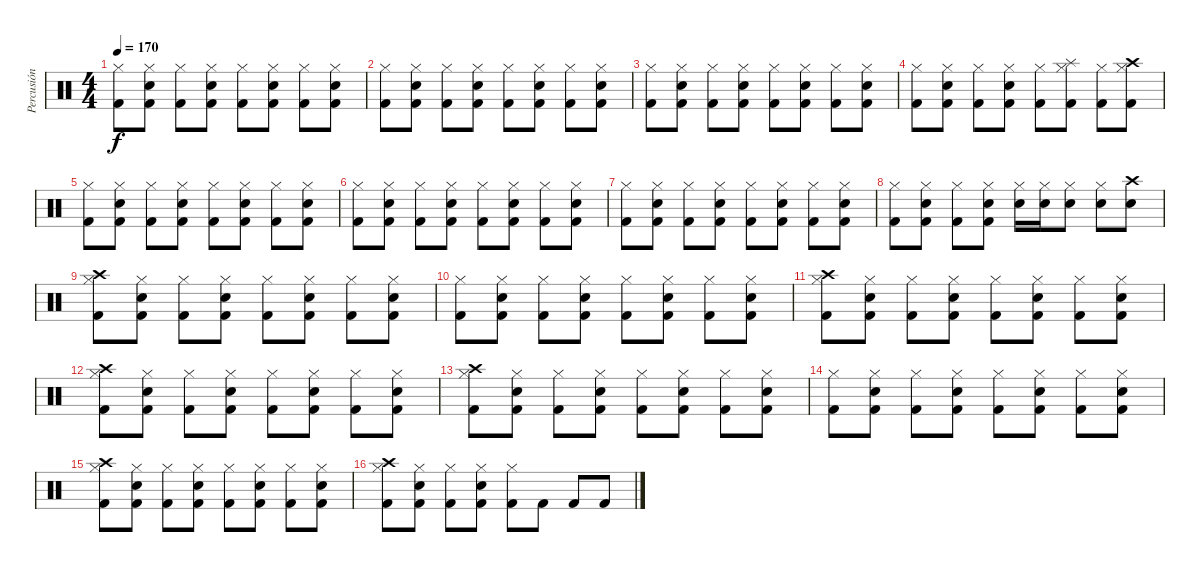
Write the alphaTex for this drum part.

\track ("Percusión" "Percusión") {instrument percussion}
\staff {score}
\articulation defaults
\ts (4 4)
\tempo 170
\clef neutral
\ks c
("Hi-Hat (closed)" "Kick (hit) 2").8{dy f} ("Hi-Hat (closed)" "Snare (hit) 2" "Kick (hit) 2").8 ("Hi-Hat (closed)" "Kick (hit) 2").8 ("Hi-Hat (closed)" "Snare (hit) 2" "Kick (hit) 2").8 ("Hi-Hat (closed)" "Kick (hit) 2").8 ("Hi-Hat (closed)" "Snare (hit) 2" "Kick (hit) 2").8 ("Hi-Hat (closed)" "Kick (hit) 2").8 ("Hi-Hat (closed)" "Snare (hit) 2" "Kick (hit) 2").8 |
("Hi-Hat (closed)" "Kick (hit) 2").8 ("Hi-Hat (closed)" "Snare (hit) 2" "Kick (hit) 2").8 ("Hi-Hat (closed)" "Kick (hit) 2").8 ("Hi-Hat (closed)" "Snare (hit) 2" "Kick (hit) 2").8 ("Hi-Hat (closed)" "Kick (hit) 2").8 ("Hi-Hat (closed)" "Snare (hit) 2" "Kick (hit) 2").8 ("Hi-Hat (closed)" "Kick (hit) 2").8 ("Hi-Hat (closed)" "Snare (hit) 2" "Kick (hit) 2").8 |
("Hi-Hat (closed)" "Kick (hit) 2").8 ("Hi-Hat (closed)" "Snare (hit) 2" "Kick (hit) 2").8 ("Hi-Hat (closed)" "Kick (hit) 2").8 ("Hi-Hat (closed)" "Snare (hit) 2" "Kick (hit) 2").8 ("Hi-Hat (closed)" "Kick (hit) 2").8 ("Hi-Hat (closed)" "Snare (hit) 2" "Kick (hit) 2").8 ("Hi-Hat (closed)" "Kick (hit) 2").8 ("Hi-Hat (closed)" "Snare (hit) 2" "Kick (hit) 2").8 |
("Hi-Hat (closed)" "Kick (hit) 2").8 ("Hi-Hat (closed)" "Snare (hit) 2" "Kick (hit) 2").8 ("Hi-Hat (closed)" "Kick (hit) 2").8 ("Hi-Hat (closed)" "Snare (hit) 2" "Kick (hit) 2").8 ("Hi-Hat (closed)" "Kick (hit) 2").8 ("Hi-Hat (closed)" "Splash (hit)" "Kick (hit) 2").8 ("Hi-Hat (closed)" "Kick (hit) 2").8 ("Hi-Hat (closed)" "Crash high (hit)" "Kick (hit) 2").8 |
("Hi-Hat (closed)" "Kick (hit) 2").8 ("Hi-Hat (closed)" "Snare (hit) 2" "Kick (hit) 2").8 ("Hi-Hat (closed)" "Kick (hit) 2").8 ("Hi-Hat (closed)" "Snare (hit) 2" "Kick (hit) 2").8 ("Hi-Hat (closed)" "Kick (hit) 2").8 ("Hi-Hat (closed)" "Snare (hit) 2" "Kick (hit) 2").8 ("Hi-Hat (closed)" "Kick (hit) 2").8 ("Hi-Hat (closed)" "Snare (hit) 2" "Kick (hit) 2").8 |
("Hi-Hat (closed)" "Kick (hit) 2").8 ("Hi-Hat (closed)" "Snare (hit) 2" "Kick (hit) 2").8 ("Hi-Hat (closed)" "Kick (hit) 2").8 ("Hi-Hat (closed)" "Snare (hit) 2" "Kick (hit) 2").8 ("Hi-Hat (closed)" "Kick (hit) 2").8 ("Hi-Hat (closed)" "Snare (hit) 2" "Kick (hit) 2").8 ("Hi-Hat (closed)" "Kick (hit) 2").8 ("Hi-Hat (closed)" "Snare (hit) 2" "Kick (hit) 2").8 |
("Hi-Hat (closed)" "Kick (hit) 2").8 ("Hi-Hat (closed)" "Snare (hit) 2" "Kick (hit) 2").8 ("Hi-Hat (closed)" "Kick (hit) 2").8 ("Hi-Hat (closed)" "Snare (hit) 2" "Kick (hit) 2").8 ("Hi-Hat (closed)" "Kick (hit) 2").8 ("Hi-Hat (closed)" "Snare (hit) 2" "Kick (hit) 2").8 ("Hi-Hat (closed)" "Kick (hit) 2").8 ("Hi-Hat (closed)" "Snare (hit) 2" "Kick (hit) 2").8 |
("Hi-Hat (closed)" "Kick (hit) 2").8 ("Hi-Hat (closed)" "Snare (hit) 2" "Kick (hit) 2").8 ("Hi-Hat (closed)" "Kick (hit) 2").8 ("Hi-Hat (closed)" "Snare (hit) 2" "Kick (hit) 2").8 ("Hi-Hat (closed)" "Snare (hit) 2").16 ("Hi-Hat (closed)" "Snare (hit) 2").16 ("Hi-Hat (closed)" "Snare (hit) 2").8 ("Hi-Hat (closed)" "Snare (hit) 2").8 ("Crash high (hit)" "Snare (hit) 2").8 |
("Hi-Hat (closed)" "Crash high (hit)" "Kick (hit) 2").8 ("Hi-Hat (closed)" "Snare (hit) 2" "Kick (hit) 2").8 ("Hi-Hat (closed)" "Kick (hit) 2").8 ("Hi-Hat (closed)" "Snare (hit) 2" "Kick (hit) 2").8 ("Hi-Hat (closed)" "Kick (hit) 2").8 ("Hi-Hat (closed)" "Snare (hit) 2" "Kick (hit) 2").8 ("Hi-Hat (closed)" "Kick (hit) 2").8 ("Hi-Hat (closed)" "Snare (hit) 2" "Kick (hit) 2").8 |
("Hi-Hat (closed)" "Kick (hit) 2").8 ("Hi-Hat (closed)" "Snare (hit) 2" "Kick (hit) 2").8 ("Hi-Hat (closed)" "Kick (hit) 2").8 ("Hi-Hat (closed)" "Snare (hit) 2" "Kick (hit) 2").8 ("Hi-Hat (closed)" "Kick (hit) 2").8 ("Hi-Hat (closed)" "Snare (hit) 2" "Kick (hit) 2").8 ("Hi-Hat (closed)" "Kick (hit) 2").8 ("Hi-Hat (closed)" "Snare (hit) 2" "Kick (hit) 2").8 |
("Hi-Hat (closed)" "Crash high (hit)" "Kick (hit) 2").8 ("Hi-Hat (closed)" "Snare (hit) 2" "Kick (hit) 2").8 ("Hi-Hat (closed)" "Kick (hit) 2").8 ("Hi-Hat (closed)" "Snare (hit) 2" "Kick (hit) 2").8 ("Hi-Hat (closed)" "Kick (hit) 2").8 ("Hi-Hat (closed)" "Snare (hit) 2" "Kick (hit) 2").8 ("Hi-Hat (closed)" "Kick (hit) 2").8 ("Hi-Hat (closed)" "Snare (hit) 2" "Kick (hit) 2").8 |
("Hi-Hat (closed)" "Crash high (hit)" "Kick (hit) 2").8 ("Hi-Hat (closed)" "Snare (hit) 2" "Kick (hit) 2").8 ("Hi-Hat (closed)" "Kick (hit) 2").8 ("Hi-Hat (closed)" "Snare (hit) 2" "Kick (hit) 2").8 ("Hi-Hat (closed)" "Kick (hit) 2").8 ("Hi-Hat (closed)" "Snare (hit) 2" "Kick (hit) 2").8 ("Hi-Hat (closed)" "Kick (hit) 2").8 ("Hi-Hat (closed)" "Snare (hit) 2" "Kick (hit) 2").8 |
("Hi-Hat (closed)" "Crash high (hit)" "Kick (hit) 2").8 ("Hi-Hat (closed)" "Snare (hit) 2" "Kick (hit) 2").8 ("Hi-Hat (closed)" "Kick (hit) 2").8 ("Hi-Hat (closed)" "Snare (hit) 2" "Kick (hit) 2").8 ("Hi-Hat (closed)" "Kick (hit) 2").8 ("Hi-Hat (closed)" "Snare (hit) 2" "Kick (hit) 2").8 ("Hi-Hat (closed)" "Kick (hit) 2").8 ("Hi-Hat (closed)" "Snare (hit) 2" "Kick (hit) 2").8 |
("Hi-Hat (closed)" "Kick (hit) 2").8 ("Hi-Hat (closed)" "Snare (hit) 2" "Kick (hit) 2").8 ("Hi-Hat (closed)" "Kick (hit) 2").8 ("Hi-Hat (closed)" "Snare (hit) 2" "Kick (hit) 2").8 ("Hi-Hat (closed)" "Kick (hit) 2").8 ("Hi-Hat (closed)" "Snare (hit) 2" "Kick (hit) 2").8 ("Hi-Hat (closed)" "Kick (hit) 2").8 ("Hi-Hat (closed)" "Snare (hit) 2" "Kick (hit) 2").8 |
("Hi-Hat (closed)" "Crash high (hit)" "Kick (hit) 2").8 ("Hi-Hat (closed)" "Snare (hit) 2" "Kick (hit) 2").8 ("Hi-Hat (closed)" "Kick (hit) 2").8 ("Hi-Hat (closed)" "Snare (hit) 2" "Kick (hit) 2").8 ("Hi-Hat (closed)" "Kick (hit) 2").8 ("Hi-Hat (closed)" "Snare (hit) 2" "Kick (hit) 2").8 ("Hi-Hat (closed)" "Kick (hit) 2").8 ("Hi-Hat (closed)" "Snare (hit) 2" "Kick (hit) 2").8 |
("Hi-Hat (closed)" "Crash high (hit)" "Kick (hit) 2").8 ("Hi-Hat (closed)" "Snare (hit) 2" "Kick (hit) 2").8 ("Hi-Hat (closed)" "Kick (hit) 2").8 ("Hi-Hat (closed)" "Snare (hit) 2" "Kick (hit) 2").8 ("Hi-Hat (closed)" "Kick (hit) 2").8 "Kick (hit) 2".8 "Kick (hit) 2".8 "Kick (hit) 2".8
